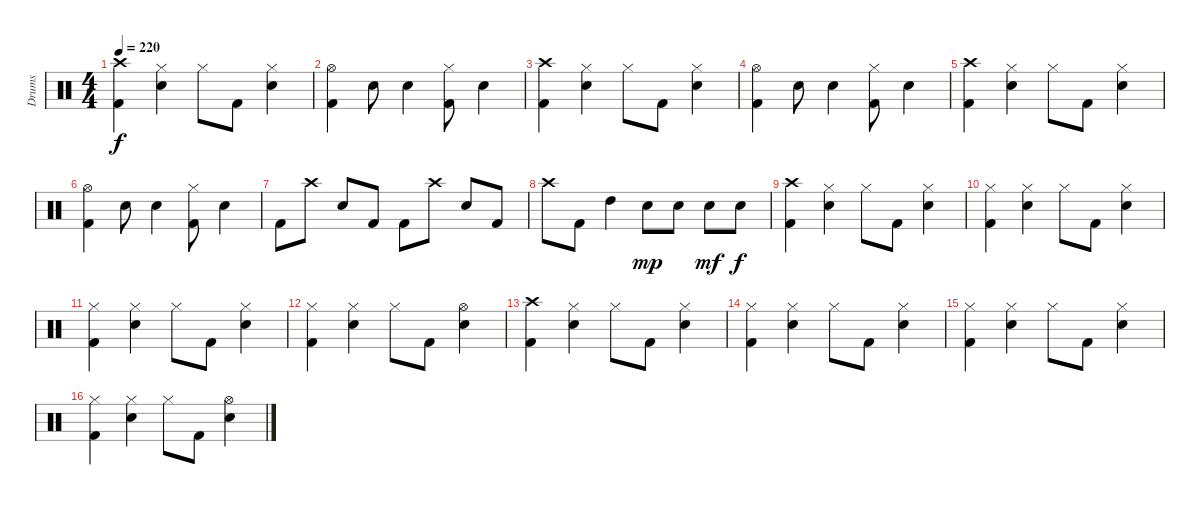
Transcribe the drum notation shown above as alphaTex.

\track ("Drums" "Drums") {instrument percussion}
\staff {score}
\articulation defaults
\ts (4 4)
\tempo 220
\clef neutral
\ks c
("Crash high (hit)" "Kick (hit) 2").4{dy f} ("Hi-Hat (closed)" "Snare (hit) 2").4 "Hi-Hat (closed)".8 "Kick (hit) 2".8 ("Hi-Hat (closed)" "Snare (hit) 2").4 |
("Hi-Hat (open)" "Kick (hit) 2").4 "Snare (hit) 2".8 "Snare (hit) 2".4 ("Hi-Hat (closed)" "Kick (hit) 2").8 "Snare (hit) 2".4 |
("Crash high (hit)" "Kick (hit) 2").4 ("Hi-Hat (closed)" "Snare (hit) 2").4 "Hi-Hat (closed)".8 "Kick (hit) 2".8 ("Hi-Hat (closed)" "Snare (hit) 2").4 |
("Hi-Hat (open)" "Kick (hit) 2").4 "Snare (hit) 2".8 "Snare (hit) 2".4 ("Hi-Hat (closed)" "Kick (hit) 2").8 "Snare (hit) 2".4 |
("Crash high (hit)" "Kick (hit) 2").4 ("Hi-Hat (closed)" "Snare (hit) 2").4 "Hi-Hat (closed)".8 "Kick (hit) 2".8 ("Hi-Hat (closed)" "Snare (hit) 2").4 |
("Hi-Hat (open)" "Kick (hit) 2").4 "Snare (hit) 2".8 "Snare (hit) 2".4 ("Hi-Hat (closed)" "Kick (hit) 2").8 "Snare (hit) 2".4 |
"Kick (hit) 2".8 "Crash high (hit)".8 "Snare (hit) 2".8 "Kick (hit) 2".8 "Kick (hit) 2".8 "Crash high (hit)".8 "Snare (hit) 2".8 "Kick (hit) 2".8 |
"Crash high (hit)".8 "Kick (hit) 2".8 "High Tom (hit)".4 "Snare (hit) 2".8{dy mp} "Snare (hit) 2".8 "Snare (hit) 2".8{dy mf} "Snare (hit) 2".8{dy f} |
("Crash high (hit)" "Kick (hit) 2").4 ("Hi-Hat (closed)" "Snare (hit) 2").4 "Hi-Hat (closed)".8 "Kick (hit) 2".8 ("Hi-Hat (closed)" "Snare (hit) 2").4 |
("Hi-Hat (closed)" "Kick (hit) 2").4 ("Hi-Hat (closed)" "Snare (hit) 2").4 "Hi-Hat (closed)".8 "Kick (hit) 2".8 ("Hi-Hat (closed)" "Snare (hit) 2").4 |
("Hi-Hat (closed)" "Kick (hit) 2").4 ("Hi-Hat (closed)" "Snare (hit) 2").4 "Hi-Hat (closed)".8 "Kick (hit) 2".8 ("Hi-Hat (closed)" "Snare (hit) 2").4 |
("Hi-Hat (closed)" "Kick (hit) 2").4 ("Hi-Hat (closed)" "Snare (hit) 2").4 "Hi-Hat (closed)".8 "Kick (hit) 2".8 ("Hi-Hat (open)" "Snare (hit) 2").4 |
("Crash high (hit)" "Kick (hit) 2").4 ("Hi-Hat (closed)" "Snare (hit) 2").4 "Hi-Hat (closed)".8 "Kick (hit) 2".8 ("Hi-Hat (closed)" "Snare (hit) 2").4 |
("Hi-Hat (closed)" "Kick (hit) 2").4 ("Hi-Hat (closed)" "Snare (hit) 2").4 "Hi-Hat (closed)".8 "Kick (hit) 2".8 ("Hi-Hat (closed)" "Snare (hit) 2").4 |
("Hi-Hat (closed)" "Kick (hit) 2").4 ("Hi-Hat (closed)" "Snare (hit) 2").4 "Hi-Hat (closed)".8 "Kick (hit) 2".8 ("Hi-Hat (closed)" "Snare (hit) 2").4 |
("Hi-Hat (closed)" "Kick (hit) 2").4 ("Hi-Hat (closed)" "Snare (hit) 2").4 "Hi-Hat (closed)".8 "Kick (hit) 2".8 ("Hi-Hat (open)" "Snare (hit) 2").4
